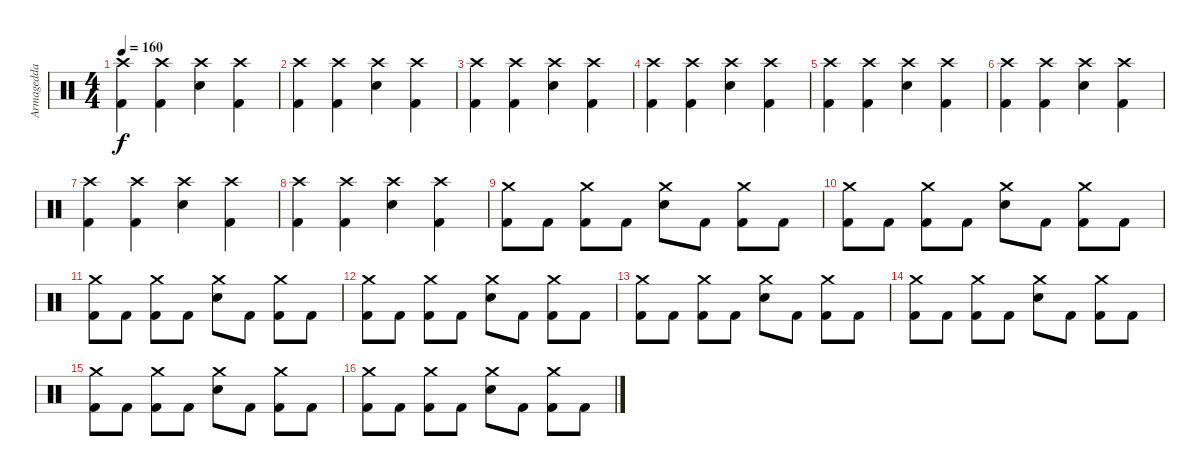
\track ("Armagedda" "Armagedda") {instrument percussion}
\staff {score}
\articulation defaults
\ts (4 4)
\tempo 160
\clef neutral
\ks c
("Crash high (hit)" "Kick (hit) 2").4{dy f} ("Crash high (hit)" "Kick (hit) 2").4 ("Crash high (hit)" "Snare (hit) 2").4 ("Crash high (hit)" "Kick (hit) 2").4 |
("Crash high (hit)" "Kick (hit) 2").4 ("Crash high (hit)" "Kick (hit) 2").4 ("Crash high (hit)" "Snare (hit) 2").4 ("Crash high (hit)" "Kick (hit) 2").4 |
("Crash high (hit)" "Kick (hit) 2").4 ("Crash high (hit)" "Kick (hit) 2").4 ("Crash high (hit)" "Snare (hit) 2").4 ("Crash high (hit)" "Kick (hit) 2").4 |
("Crash high (hit)" "Kick (hit) 2").4 ("Crash high (hit)" "Kick (hit) 2").4 ("Crash high (hit)" "Snare (hit) 2").4 ("Crash high (hit)" "Kick (hit) 2").4 |
("Crash high (hit)" "Kick (hit) 2").4 ("Crash high (hit)" "Kick (hit) 2").4 ("Crash high (hit)" "Snare (hit) 2").4 ("Crash high (hit)" "Kick (hit) 2").4 |
("Crash high (hit)" "Kick (hit) 2").4 ("Crash high (hit)" "Kick (hit) 2").4 ("Crash high (hit)" "Snare (hit) 2").4 ("Crash high (hit)" "Kick (hit) 2").4 |
("Crash high (hit)" "Kick (hit) 2").4 ("Crash high (hit)" "Kick (hit) 2").4 ("Crash high (hit)" "Snare (hit) 2").4 ("Crash high (hit)" "Kick (hit) 2").4 |
("Crash high (hit)" "Kick (hit) 2").4 ("Crash high (hit)" "Kick (hit) 2").4 ("Crash high (hit)" "Snare (hit) 2").4 ("Crash high (hit)" "Kick (hit) 2").4 |
("Crash medium (hit)" "Kick (hit) 2").8 "Kick (hit) 2".8 ("Crash medium (hit)" "Kick (hit) 2").8 "Kick (hit) 2".8 ("Crash medium (hit)" "Snare (hit) 2").8 "Kick (hit) 2".8 ("Crash medium (hit)" "Kick (hit) 2").8 "Kick (hit) 2".8 |
("Crash medium (hit)" "Kick (hit) 2").8 "Kick (hit) 2".8 ("Crash medium (hit)" "Kick (hit) 2").8 "Kick (hit) 2".8 ("Crash medium (hit)" "Snare (hit) 2").8 "Kick (hit) 2".8 ("Crash medium (hit)" "Kick (hit) 2").8 "Kick (hit) 2".8 |
("Crash medium (hit)" "Kick (hit) 2").8 "Kick (hit) 2".8 ("Crash medium (hit)" "Kick (hit) 2").8 "Kick (hit) 2".8 ("Crash medium (hit)" "Snare (hit) 2").8 "Kick (hit) 2".8 ("Crash medium (hit)" "Kick (hit) 2").8 "Kick (hit) 2".8 |
("Crash medium (hit)" "Kick (hit) 2").8 "Kick (hit) 2".8 ("Crash medium (hit)" "Kick (hit) 2").8 "Kick (hit) 2".8 ("Crash medium (hit)" "Snare (hit) 2").8 "Kick (hit) 2".8 ("Crash medium (hit)" "Kick (hit) 2").8 "Kick (hit) 2".8 |
("Crash medium (hit)" "Kick (hit) 2").8 "Kick (hit) 2".8 ("Crash medium (hit)" "Kick (hit) 2").8 "Kick (hit) 2".8 ("Crash medium (hit)" "Snare (hit) 2").8 "Kick (hit) 2".8 ("Crash medium (hit)" "Kick (hit) 2").8 "Kick (hit) 2".8 |
("Crash medium (hit)" "Kick (hit) 2").8 "Kick (hit) 2".8 ("Crash medium (hit)" "Kick (hit) 2").8 "Kick (hit) 2".8 ("Crash medium (hit)" "Snare (hit) 2").8 "Kick (hit) 2".8 ("Crash medium (hit)" "Kick (hit) 2").8 "Kick (hit) 2".8 |
("Crash medium (hit)" "Kick (hit) 2").8 "Kick (hit) 2".8 ("Crash medium (hit)" "Kick (hit) 2").8 "Kick (hit) 2".8 ("Crash medium (hit)" "Snare (hit) 2").8 "Kick (hit) 2".8 ("Crash medium (hit)" "Kick (hit) 2").8 "Kick (hit) 2".8 |
("Crash medium (hit)" "Kick (hit) 2").8 "Kick (hit) 2".8 ("Crash medium (hit)" "Kick (hit) 2").8 "Kick (hit) 2".8 ("Crash medium (hit)" "Snare (hit) 2").8 "Kick (hit) 2".8 ("Crash medium (hit)" "Kick (hit) 2").8 "Kick (hit) 2".8
